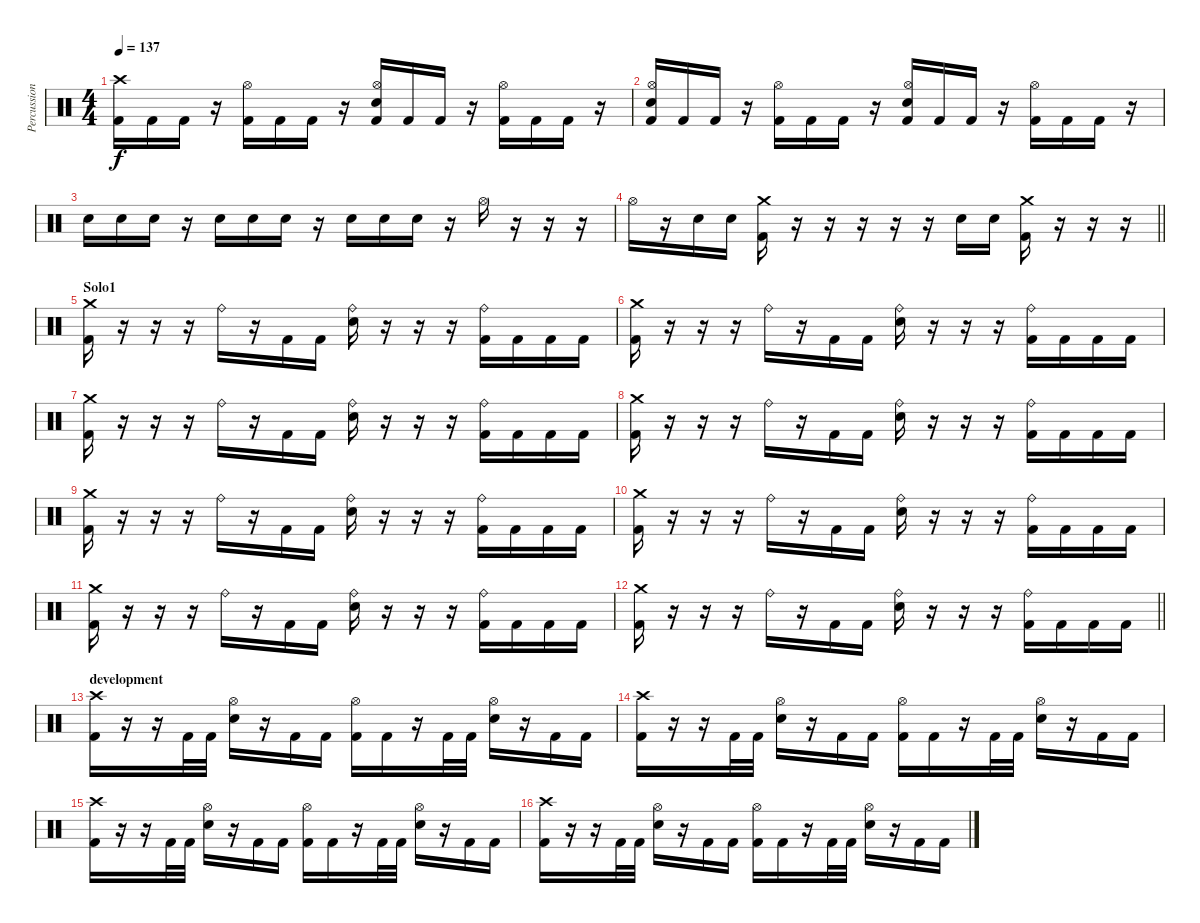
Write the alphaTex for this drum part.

\track ("Percussion" "Percussion") {instrument percussion}
\staff {score}
\articulation defaults
\ts (4 4)
\tempo 137
\clef neutral
\ks c
("Crash high (hit)" "Kick (hit) 2").16{dy f} "Kick (hit) 2".16 "Kick (hit) 2".16 r.16 ("Hi-Hat (open)" "Kick (hit) 2").16 "Kick (hit) 2".16 "Kick (hit) 2".16 r.16 ("Hi-Hat (open)" "Snare (hit) 2" "Kick (hit) 2").16 "Kick (hit) 2".16 "Kick (hit) 2".16 r.16 ("Hi-Hat (open)" "Kick (hit) 2").16 "Kick (hit) 2".16 "Kick (hit) 2".16 r.16 |
("Hi-Hat (open)" "Snare (hit) 2" "Kick (hit) 2").16 "Kick (hit) 2".16 "Kick (hit) 2".16 r.16 ("Hi-Hat (open)" "Kick (hit) 2").16 "Kick (hit) 2".16 "Kick (hit) 2".16 r.16 ("Hi-Hat (open)" "Snare (hit) 2" "Kick (hit) 2").16 "Kick (hit) 2".16 "Kick (hit) 2".16 r.16 ("Hi-Hat (open)" "Kick (hit) 2").16 "Kick (hit) 2".16 "Kick (hit) 2".16 r.16 |
"Snare (hit) 2".16 "Snare (hit) 2".16 "Snare (hit) 2".16 r.16 "Snare (hit) 2".16 "Snare (hit) 2".16 "Snare (hit) 2".16 r.16 "Snare (hit) 2".16 "Snare (hit) 2".16 "Snare (hit) 2".16 r.16 "Hi-Hat (open)".16 r.16 r.16 r.16 |
\barLineRight lightlight "Hi-Hat (open)".16
r.16 "Snare (hit) 2".16 "Snare (hit) 2".16 ("Crash medium (hit)" "Kick (hit) 2").16 r.16 r.16 r.16 r.16 r.16 "Snare (hit) 2".16 "Snare (hit) 2".16 ("Crash medium (hit)" "Kick (hit) 2").16 r.16 r.16 r.16 |
\section ("" "Solo1")
("Crash medium (hit)" "Kick (hit) 2").16 r.16 r.16 r.16 "Ride (bell)".16 r.16 "Kick (hit) 2".16 "Kick (hit) 2".16 ("Ride (bell)" "Snare (hit) 2").16 r.16 r.16 r.16 ("Ride (bell)" "Kick (hit) 2").16 "Kick (hit) 2".16 "Kick (hit) 2".16 "Kick (hit) 2".16 |
("Crash medium (hit)" "Kick (hit) 2").16 r.16 r.16 r.16 "Ride (bell)".16 r.16 "Kick (hit) 2".16 "Kick (hit) 2".16 ("Ride (bell)" "Snare (hit) 2").16 r.16 r.16 r.16 ("Ride (bell)" "Kick (hit) 2").16 "Kick (hit) 2".16 "Kick (hit) 2".16 "Kick (hit) 2".16 |
("Crash medium (hit)" "Kick (hit) 2").16 r.16 r.16 r.16 "Ride (bell)".16 r.16 "Kick (hit) 2".16 "Kick (hit) 2".16 ("Ride (bell)" "Snare (hit) 2").16 r.16 r.16 r.16 ("Ride (bell)" "Kick (hit) 2").16 "Kick (hit) 2".16 "Kick (hit) 2".16 "Kick (hit) 2".16 |
("Crash medium (hit)" "Kick (hit) 2").16 r.16 r.16 r.16 "Ride (bell)".16 r.16 "Kick (hit) 2".16 "Kick (hit) 2".16 ("Ride (bell)" "Snare (hit) 2").16 r.16 r.16 r.16 ("Ride (bell)" "Kick (hit) 2").16 "Kick (hit) 2".16 "Kick (hit) 2".16 "Kick (hit) 2".16 |
("Crash medium (hit)" "Kick (hit) 2").16 r.16 r.16 r.16 "Ride (bell)".16 r.16 "Kick (hit) 2".16 "Kick (hit) 2".16 ("Ride (bell)" "Snare (hit) 2").16 r.16 r.16 r.16 ("Ride (bell)" "Kick (hit) 2").16 "Kick (hit) 2".16 "Kick (hit) 2".16 "Kick (hit) 2".16 |
("Crash medium (hit)" "Kick (hit) 2").16 r.16 r.16 r.16 "Ride (bell)".16 r.16 "Kick (hit) 2".16 "Kick (hit) 2".16 ("Ride (bell)" "Snare (hit) 2").16 r.16 r.16 r.16 ("Ride (bell)" "Kick (hit) 2").16 "Kick (hit) 2".16 "Kick (hit) 2".16 "Kick (hit) 2".16 |
("Crash medium (hit)" "Kick (hit) 2").16 r.16 r.16 r.16 "Ride (bell)".16 r.16 "Kick (hit) 2".16 "Kick (hit) 2".16 ("Ride (bell)" "Snare (hit) 2").16 r.16 r.16 r.16 ("Ride (bell)" "Kick (hit) 2").16 "Kick (hit) 2".16 "Kick (hit) 2".16 "Kick (hit) 2".16 |
\barLineRight lightlight
("Crash medium (hit)" "Kick (hit) 2").16 r.16 r.16 r.16 "Ride (bell)".16 r.16 "Kick (hit) 2".16 "Kick (hit) 2".16 ("Ride (bell)" "Snare (hit) 2").16 r.16 r.16 r.16 ("Ride (bell)" "Kick (hit) 2").16 "Kick (hit) 2".16 "Kick (hit) 2".16 "Kick (hit) 2".16 |
\section ("" "development")
("Crash high (hit)" "Kick (hit) 2").16 r.16 r.16 "Kick (hit) 2".32 "Kick (hit) 2".32 ("Hi-Hat (open)" "Snare (hit) 2").16 r.16 "Kick (hit) 2".16 "Kick (hit) 2".16 ("Hi-Hat (open)" "Kick (hit) 2").16 "Kick (hit) 2".16 r.16 "Kick (hit) 2".32 "Kick (hit) 2".32 ("Hi-Hat (open)" "Snare (hit) 2").16 r.16 "Kick (hit) 2".16 "Kick (hit) 2".16 |
("Crash high (hit)" "Kick (hit) 2").16 r.16 r.16 "Kick (hit) 2".32 "Kick (hit) 2".32 ("Hi-Hat (open)" "Snare (hit) 2").16 r.16 "Kick (hit) 2".16 "Kick (hit) 2".16 ("Hi-Hat (open)" "Kick (hit) 2").16 "Kick (hit) 2".16 r.16 "Kick (hit) 2".32 "Kick (hit) 2".32 ("Hi-Hat (open)" "Snare (hit) 2").16 r.16 "Kick (hit) 2".16 "Kick (hit) 2".16 |
("Crash high (hit)" "Kick (hit) 2").16 r.16 r.16 "Kick (hit) 2".32 "Kick (hit) 2".32 ("Hi-Hat (open)" "Snare (hit) 2").16 r.16 "Kick (hit) 2".16 "Kick (hit) 2".16 ("Hi-Hat (open)" "Kick (hit) 2").16 "Kick (hit) 2".16 r.16 "Kick (hit) 2".32 "Kick (hit) 2".32 ("Hi-Hat (open)" "Snare (hit) 2").16 r.16 "Kick (hit) 2".16 "Kick (hit) 2".16 |
("Crash high (hit)" "Kick (hit) 2").16 r.16 r.16 "Kick (hit) 2".32 "Kick (hit) 2".32 ("Hi-Hat (open)" "Snare (hit) 2").16 r.16 "Kick (hit) 2".16 "Kick (hit) 2".16 ("Hi-Hat (open)" "Kick (hit) 2").16 "Kick (hit) 2".16 r.16 "Kick (hit) 2".32 "Kick (hit) 2".32 ("Hi-Hat (open)" "Snare (hit) 2").16 r.16 "Kick (hit) 2".16 "Kick (hit) 2".16
